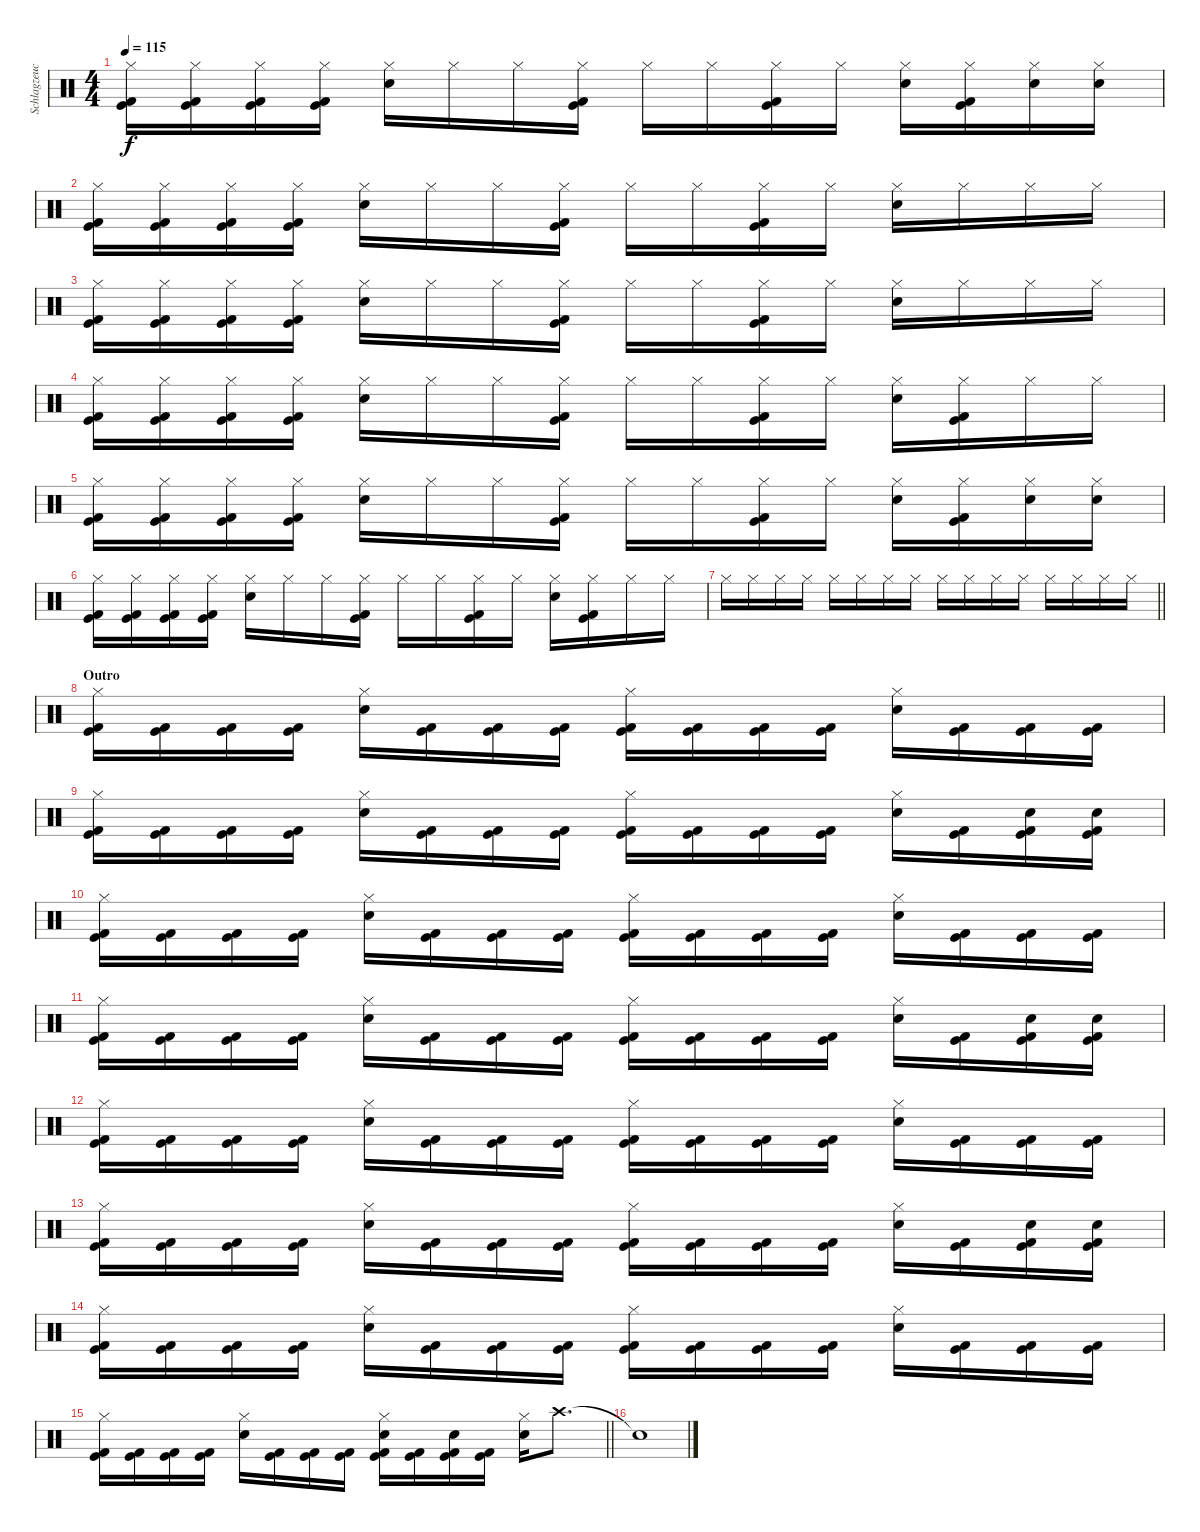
\track ("Schlagzeuch" "Schlagzeuc") {instrument percussion}
\staff {score}
\articulation defaults
\ts (4 4)
\tempo 115
\clef neutral
\ks c
("Hi-Hat (closed)" "Kick (hit)" "Kick (hit) 2").16{dy f} ("Hi-Hat (closed)" "Kick (hit)" "Kick (hit) 2").16 ("Hi-Hat (closed)" "Kick (hit)" "Kick (hit) 2").16 ("Hi-Hat (closed)" "Kick (hit)" "Kick (hit) 2").16 ("Hi-Hat (closed)" "Electric Snare (hit)").16 "Hi-Hat (closed)".16 "Hi-Hat (closed)".16 ("Hi-Hat (closed)" "Kick (hit)" "Kick (hit) 2").16 "Hi-Hat (closed)".16 "Hi-Hat (closed)".16 ("Hi-Hat (closed)" "Kick (hit)" "Kick (hit) 2").16 "Hi-Hat (closed)".16 ("Hi-Hat (closed)" "Electric Snare (hit)").16 ("Hi-Hat (closed)" "Kick (hit)" "Kick (hit) 2").16 ("Hi-Hat (closed)" "Electric Snare (hit)").16 ("Hi-Hat (closed)" "Electric Snare (hit)").16 |
("Hi-Hat (closed)" "Kick (hit)" "Kick (hit) 2").16 ("Hi-Hat (closed)" "Kick (hit)" "Kick (hit) 2").16 ("Hi-Hat (closed)" "Kick (hit)" "Kick (hit) 2").16 ("Hi-Hat (closed)" "Kick (hit)" "Kick (hit) 2").16 ("Hi-Hat (closed)" "Electric Snare (hit)").16 "Hi-Hat (closed)".16 "Hi-Hat (closed)".16 ("Hi-Hat (closed)" "Kick (hit)" "Kick (hit) 2").16 "Hi-Hat (closed)".16 "Hi-Hat (closed)".16 ("Hi-Hat (closed)" "Kick (hit)" "Kick (hit) 2").16 "Hi-Hat (closed)".16 ("Hi-Hat (closed)" "Electric Snare (hit)").16 "Hi-Hat (closed)".16 "Hi-Hat (closed)".16 "Hi-Hat (closed)".16 |
("Hi-Hat (closed)" "Kick (hit)" "Kick (hit) 2").16 ("Hi-Hat (closed)" "Kick (hit)" "Kick (hit) 2").16 ("Hi-Hat (closed)" "Kick (hit)" "Kick (hit) 2").16 ("Hi-Hat (closed)" "Kick (hit)" "Kick (hit) 2").16 ("Hi-Hat (closed)" "Electric Snare (hit)").16 "Hi-Hat (closed)".16 "Hi-Hat (closed)".16 ("Hi-Hat (closed)" "Kick (hit)" "Kick (hit) 2").16 "Hi-Hat (closed)".16 "Hi-Hat (closed)".16 ("Hi-Hat (closed)" "Kick (hit)" "Kick (hit) 2").16 "Hi-Hat (closed)".16 ("Hi-Hat (closed)" "Electric Snare (hit)").16 "Hi-Hat (closed)".16 "Hi-Hat (closed)".16 "Hi-Hat (closed)".16 |
("Hi-Hat (closed)" "Kick (hit)" "Kick (hit) 2").16 ("Hi-Hat (closed)" "Kick (hit)" "Kick (hit) 2").16 ("Hi-Hat (closed)" "Kick (hit)" "Kick (hit) 2").16 ("Hi-Hat (closed)" "Kick (hit)" "Kick (hit) 2").16 ("Hi-Hat (closed)" "Electric Snare (hit)").16 "Hi-Hat (closed)".16 "Hi-Hat (closed)".16 ("Hi-Hat (closed)" "Kick (hit)" "Kick (hit) 2").16 "Hi-Hat (closed)".16 "Hi-Hat (closed)".16 ("Hi-Hat (closed)" "Kick (hit)" "Kick (hit) 2").16 "Hi-Hat (closed)".16 ("Hi-Hat (closed)" "Electric Snare (hit)").16 ("Hi-Hat (closed)" "Kick (hit)" "Kick (hit) 2").16 "Hi-Hat (closed)".16 "Hi-Hat (closed)".16 |
("Hi-Hat (closed)" "Kick (hit)" "Kick (hit) 2").16 ("Hi-Hat (closed)" "Kick (hit)" "Kick (hit) 2").16 ("Hi-Hat (closed)" "Kick (hit)" "Kick (hit) 2").16 ("Hi-Hat (closed)" "Kick (hit)" "Kick (hit) 2").16 ("Hi-Hat (closed)" "Electric Snare (hit)").16 "Hi-Hat (closed)".16 "Hi-Hat (closed)".16 ("Hi-Hat (closed)" "Kick (hit)" "Kick (hit) 2").16 "Hi-Hat (closed)".16 "Hi-Hat (closed)".16 ("Hi-Hat (closed)" "Kick (hit)" "Kick (hit) 2").16 "Hi-Hat (closed)".16 ("Hi-Hat (closed)" "Electric Snare (hit)").16 ("Hi-Hat (closed)" "Kick (hit)" "Kick (hit) 2").16 ("Hi-Hat (closed)" "Electric Snare (hit)").16 ("Hi-Hat (closed)" "Electric Snare (hit)").16 |
("Hi-Hat (closed)" "Kick (hit)" "Kick (hit) 2").16 ("Hi-Hat (closed)" "Kick (hit)" "Kick (hit) 2").16 ("Hi-Hat (closed)" "Kick (hit)" "Kick (hit) 2").16 ("Hi-Hat (closed)" "Kick (hit)" "Kick (hit) 2").16 ("Hi-Hat (closed)" "Electric Snare (hit)").16 "Hi-Hat (closed)".16 "Hi-Hat (closed)".16 ("Hi-Hat (closed)" "Kick (hit)" "Kick (hit) 2").16 "Hi-Hat (closed)".16 "Hi-Hat (closed)".16 ("Hi-Hat (closed)" "Kick (hit)" "Kick (hit) 2").16 "Hi-Hat (closed)".16 ("Hi-Hat (closed)" "Electric Snare (hit)").16 ("Hi-Hat (closed)" "Kick (hit)" "Kick (hit) 2").16 "Hi-Hat (closed)".16 "Hi-Hat (closed)".16 |
\barLineRight lightlight "Hi-Hat (closed)".16 "Hi-Hat (closed)".16 "Hi-Hat (closed)".16 "Hi-Hat (closed)".16 "Hi-Hat (closed)".16 "Hi-Hat (closed)".16 "Hi-Hat (closed)".16 "Hi-Hat (closed)".16 "Hi-Hat (closed)".16 "Hi-Hat (closed)".16 "Hi-Hat (closed)".16 "Hi-Hat (closed)".16 "Hi-Hat (closed)".16 "Hi-Hat (closed)".16 "Hi-Hat (closed)".16 "Hi-Hat (closed)".16
|
\section ("" "Outro")
("Hi-Hat (closed)" "Kick (hit)" "Kick (hit) 2").16 ("Kick (hit)" "Kick (hit) 2").16 ("Kick (hit)" "Kick (hit) 2").16 ("Kick (hit)" "Kick (hit) 2").16 ("Hi-Hat (closed)" "Electric Snare (hit)").16 ("Kick (hit)" "Kick (hit) 2").16 ("Kick (hit)" "Kick (hit) 2").16 ("Kick (hit)" "Kick (hit) 2").16 ("Hi-Hat (closed)" "Kick (hit)" "Kick (hit) 2").16 ("Kick (hit)" "Kick (hit) 2").16 ("Kick (hit)" "Kick (hit) 2").16 ("Kick (hit)" "Kick (hit) 2").16 ("Hi-Hat (closed)" "Electric Snare (hit)").16 ("Kick (hit)" "Kick (hit) 2").16 ("Kick (hit)" "Kick (hit) 2").16 ("Kick (hit)" "Kick (hit) 2").16 |
("Hi-Hat (closed)" "Kick (hit)" "Kick (hit) 2").16 ("Kick (hit)" "Kick (hit) 2").16 ("Kick (hit)" "Kick (hit) 2").16 ("Kick (hit)" "Kick (hit) 2").16 ("Hi-Hat (closed)" "Electric Snare (hit)").16 ("Kick (hit)" "Kick (hit) 2").16 ("Kick (hit)" "Kick (hit) 2").16 ("Kick (hit)" "Kick (hit) 2").16 ("Hi-Hat (closed)" "Kick (hit)" "Kick (hit) 2").16 ("Kick (hit)" "Kick (hit) 2").16 ("Kick (hit)" "Kick (hit) 2").16 ("Kick (hit)" "Kick (hit) 2").16 ("Hi-Hat (closed)" "Electric Snare (hit)").16 ("Kick (hit)" "Kick (hit) 2").16 ("Kick (hit)" "Kick (hit) 2" "Electric Snare (hit)").16 ("Kick (hit)" "Kick (hit) 2" "Electric Snare (hit)").16 |
("Hi-Hat (closed)" "Kick (hit)" "Kick (hit) 2").16 ("Kick (hit)" "Kick (hit) 2").16 ("Kick (hit)" "Kick (hit) 2").16 ("Kick (hit)" "Kick (hit) 2").16 ("Hi-Hat (closed)" "Electric Snare (hit)").16 ("Kick (hit)" "Kick (hit) 2").16 ("Kick (hit)" "Kick (hit) 2").16 ("Kick (hit)" "Kick (hit) 2").16 ("Hi-Hat (closed)" "Kick (hit)" "Kick (hit) 2").16 ("Kick (hit)" "Kick (hit) 2").16 ("Kick (hit)" "Kick (hit) 2").16 ("Kick (hit)" "Kick (hit) 2").16 ("Hi-Hat (closed)" "Electric Snare (hit)").16 ("Kick (hit)" "Kick (hit) 2").16 ("Kick (hit)" "Kick (hit) 2").16 ("Kick (hit)" "Kick (hit) 2").16 |
("Hi-Hat (closed)" "Kick (hit)" "Kick (hit) 2").16 ("Kick (hit)" "Kick (hit) 2").16 ("Kick (hit)" "Kick (hit) 2").16 ("Kick (hit)" "Kick (hit) 2").16 ("Hi-Hat (closed)" "Electric Snare (hit)").16 ("Kick (hit)" "Kick (hit) 2").16 ("Kick (hit)" "Kick (hit) 2").16 ("Kick (hit)" "Kick (hit) 2").16 ("Hi-Hat (closed)" "Kick (hit)" "Kick (hit) 2").16 ("Kick (hit)" "Kick (hit) 2").16 ("Kick (hit)" "Kick (hit) 2").16 ("Kick (hit)" "Kick (hit) 2").16 ("Hi-Hat (closed)" "Electric Snare (hit)").16 ("Kick (hit)" "Kick (hit) 2").16 ("Kick (hit)" "Kick (hit) 2" "Electric Snare (hit)").16 ("Kick (hit)" "Kick (hit) 2" "Electric Snare (hit)").16 |
("Hi-Hat (closed)" "Kick (hit)" "Kick (hit) 2").16 ("Kick (hit)" "Kick (hit) 2").16 ("Kick (hit)" "Kick (hit) 2").16 ("Kick (hit)" "Kick (hit) 2").16 ("Hi-Hat (closed)" "Electric Snare (hit)").16 ("Kick (hit)" "Kick (hit) 2").16 ("Kick (hit)" "Kick (hit) 2").16 ("Kick (hit)" "Kick (hit) 2").16 ("Hi-Hat (closed)" "Kick (hit)" "Kick (hit) 2").16 ("Kick (hit)" "Kick (hit) 2").16 ("Kick (hit)" "Kick (hit) 2").16 ("Kick (hit)" "Kick (hit) 2").16 ("Hi-Hat (closed)" "Electric Snare (hit)").16 ("Kick (hit)" "Kick (hit) 2").16 ("Kick (hit)" "Kick (hit) 2").16 ("Kick (hit)" "Kick (hit) 2").16 |
("Hi-Hat (closed)" "Kick (hit)" "Kick (hit) 2").16 ("Kick (hit)" "Kick (hit) 2").16 ("Kick (hit)" "Kick (hit) 2").16 ("Kick (hit)" "Kick (hit) 2").16 ("Hi-Hat (closed)" "Electric Snare (hit)").16 ("Kick (hit)" "Kick (hit) 2").16 ("Kick (hit)" "Kick (hit) 2").16 ("Kick (hit)" "Kick (hit) 2").16 ("Hi-Hat (closed)" "Kick (hit)" "Kick (hit) 2").16 ("Kick (hit)" "Kick (hit) 2").16 ("Kick (hit)" "Kick (hit) 2").16 ("Kick (hit)" "Kick (hit) 2").16 ("Hi-Hat (closed)" "Electric Snare (hit)").16 ("Kick (hit)" "Kick (hit) 2").16 ("Kick (hit)" "Kick (hit) 2" "Electric Snare (hit)").16 ("Kick (hit)" "Kick (hit) 2" "Electric Snare (hit)").16 |
("Hi-Hat (closed)" "Kick (hit)" "Kick (hit) 2").16 ("Kick (hit)" "Kick (hit) 2").16 ("Kick (hit)" "Kick (hit) 2").16 ("Kick (hit)" "Kick (hit) 2").16 ("Hi-Hat (closed)" "Electric Snare (hit)").16 ("Kick (hit)" "Kick (hit) 2").16 ("Kick (hit)" "Kick (hit) 2").16 ("Kick (hit)" "Kick (hit) 2").16 ("Hi-Hat (closed)" "Kick (hit)" "Kick (hit) 2").16 ("Kick (hit)" "Kick (hit) 2").16 ("Kick (hit)" "Kick (hit) 2").16 ("Kick (hit)" "Kick (hit) 2").16 ("Hi-Hat (closed)" "Electric Snare (hit)").16 ("Kick (hit)" "Kick (hit) 2").16 ("Kick (hit)" "Kick (hit) 2").16 ("Kick (hit)" "Kick (hit) 2").16 |
\barLineRight lightlight
("Hi-Hat (closed)" "Kick (hit)" "Kick (hit) 2").16 ("Kick (hit)" "Kick (hit) 2").16 ("Kick (hit)" "Kick (hit) 2").16 ("Kick (hit)" "Kick (hit) 2").16 ("Hi-Hat (closed)" "Electric Snare (hit)").16 ("Kick (hit)" "Kick (hit) 2").16 ("Kick (hit)" "Kick (hit) 2").16 ("Kick (hit)" "Kick (hit) 2").16 ("Hi-Hat (closed)" "Kick (hit)" "Kick (hit) 2" "Electric Snare (hit)").16 ("Kick (hit)" "Kick (hit) 2").16 ("Kick (hit)" "Kick (hit) 2" "Electric Snare (hit)").16 ("Kick (hit)" "Kick (hit) 2").16 ("Hi-Hat (closed)" "Electric Snare (hit)").16 "Crash high (hit)".8{d} |
"Snare (hit)"{t}.1
